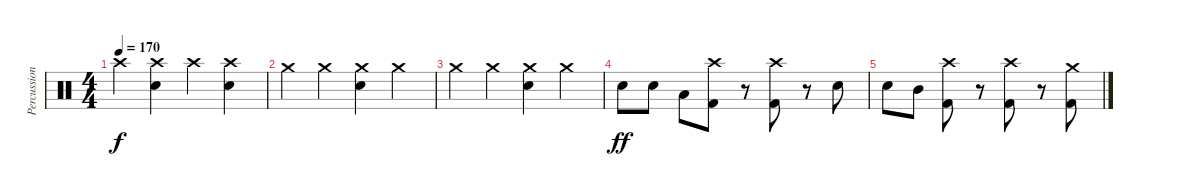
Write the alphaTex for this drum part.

\track ("Percussion" "Percussion") {solo instrument percussion}
\staff {score}
\articulation defaults
\ts (4 4)
\tempo 170
\clef neutral
\ks c "Crash high (hit)".4{dy f}
("Crash high (hit)" "Electric Snare (hit)").4 "Crash high (hit)".4 ("Crash high (hit)" "Electric Snare (hit)").4 |
"Crash medium (hit)".4 "Crash medium (hit)".4 ("Crash medium (hit)" "Electric Snare (hit)").4 "Crash medium (hit)".4 |
"Crash medium (hit)".4 "Crash medium (hit)".4 ("Crash medium (hit)" "Electric Snare (hit)").4 "Crash medium (hit)".4 |
"Electric Snare (hit)".8{dy ff} "Electric Snare (hit)".8 "Low Tom (hit)".8 ("Crash high (hit)" "Kick (hit) 2").8 r.8 ("Crash high (hit)" "Kick (hit) 2").8 r.8 "Electric Snare (hit)".8 |
"Electric Snare (hit)".8 "Mid Tom (hit)".8 ("Kick (hit) 2" "Crash high (hit)").8 r.8 ("Kick (hit) 2" "Crash high (hit)").8 r.8 ("Kick (hit) 2" "Crash medium (hit)").8
